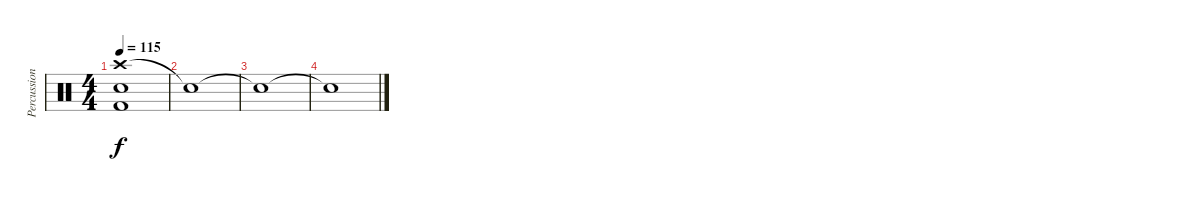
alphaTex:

\track ("Percussion" "Percussion") {instrument percussion}
\staff {score}
\articulation defaults
\ts (4 4)
\tempo 115
\clef neutral
\ks c
("Crash high (hit)" "Electric Snare (hit)" "Kick (hit) 2").1{dy f} |
"Snare (hit)"{t}.1 |
"Snare (hit)"{t}.1 |
"Snare (hit)"{t}.1
